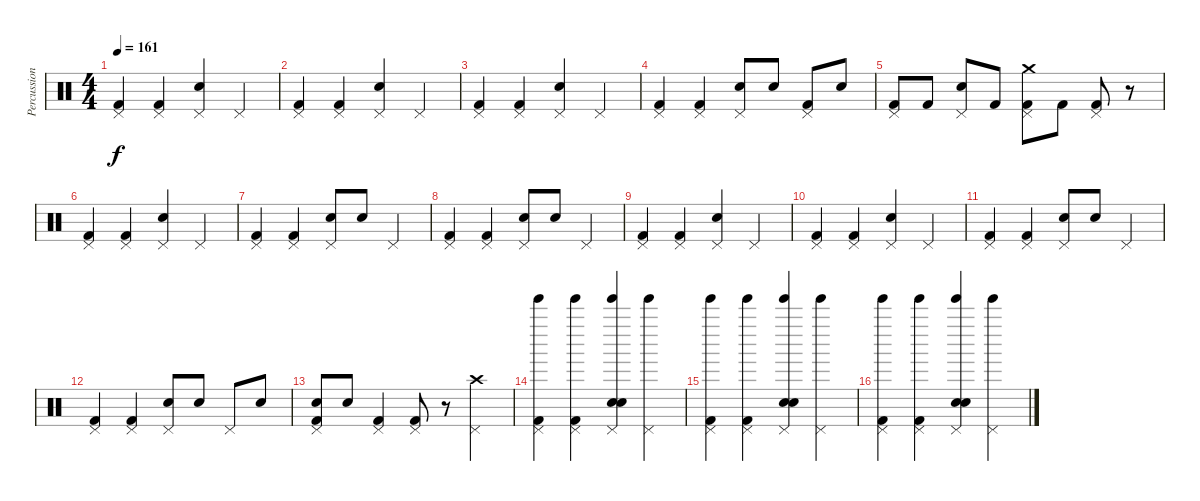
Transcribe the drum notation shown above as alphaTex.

\track ("Percussion" "Percussion") {instrument percussion}
\staff {score}
\articulation defaults
\ts (4 4)
\tempo 161
\clef neutral
\ks c
("Pedal Hi-Hat (hit)" "Kick (hit) 2").4{dy f} ("Pedal Hi-Hat (hit)" "Kick (hit) 2").4 ("Pedal Hi-Hat (hit)" "Electric Snare (hit)").4 "Pedal Hi-Hat (hit)".4 |
("Pedal Hi-Hat (hit)" "Kick (hit) 2").4 ("Pedal Hi-Hat (hit)" "Kick (hit) 2").4 ("Pedal Hi-Hat (hit)" "Electric Snare (hit)").4 "Pedal Hi-Hat (hit)".4 |
("Pedal Hi-Hat (hit)" "Kick (hit) 2").4 ("Pedal Hi-Hat (hit)" "Kick (hit) 2").4 ("Pedal Hi-Hat (hit)" "Electric Snare (hit)").4 "Pedal Hi-Hat (hit)".4 |
("Pedal Hi-Hat (hit)" "Kick (hit) 2").4 ("Pedal Hi-Hat (hit)" "Kick (hit) 2").4 ("Pedal Hi-Hat (hit)" "Electric Snare (hit)").8 "Electric Snare (hit)".8 ("Pedal Hi-Hat (hit)" "Kick (hit) 2").8 "Electric Snare (hit)".8 |
("Pedal Hi-Hat (hit)" "Kick (hit) 2").8 "Kick (hit) 2".8 ("Pedal Hi-Hat (hit)" "Electric Snare (hit)").8 "Kick (hit) 2".8 ("Pedal Hi-Hat (hit)" "Crash medium (hit)" "Kick (hit) 2").8 "Kick (hit) 2".8 ("Pedal Hi-Hat (hit)" "Kick (hit) 2").8 r.8 |
("Pedal Hi-Hat (hit)" "Kick (hit) 2").4 ("Pedal Hi-Hat (hit)" "Kick (hit) 2").4 ("Pedal Hi-Hat (hit)" "Electric Snare (hit)").4 "Pedal Hi-Hat (hit)".4 |
("Pedal Hi-Hat (hit)" "Kick (hit) 2").4 ("Pedal Hi-Hat (hit)" "Kick (hit) 2").4 ("Pedal Hi-Hat (hit)" "Electric Snare (hit)").8 "Electric Snare (hit)".8 "Pedal Hi-Hat (hit)".4 |
("Pedal Hi-Hat (hit)" "Kick (hit) 2").4 ("Pedal Hi-Hat (hit)" "Kick (hit) 2").4 ("Pedal Hi-Hat (hit)" "Electric Snare (hit)").8 "Electric Snare (hit)".8 "Pedal Hi-Hat (hit)".4 |
("Pedal Hi-Hat (hit)" "Kick (hit) 2").4 ("Pedal Hi-Hat (hit)" "Kick (hit) 2").4 ("Pedal Hi-Hat (hit)" "Electric Snare (hit)").4 "Pedal Hi-Hat (hit)".4 |
("Pedal Hi-Hat (hit)" "Kick (hit) 2").4 ("Pedal Hi-Hat (hit)" "Kick (hit) 2").4 ("Pedal Hi-Hat (hit)" "Electric Snare (hit)").4 "Pedal Hi-Hat (hit)".4 |
("Pedal Hi-Hat (hit)" "Kick (hit) 2").4 ("Pedal Hi-Hat (hit)" "Kick (hit) 2").4 ("Pedal Hi-Hat (hit)" "Electric Snare (hit)").8 "Electric Snare (hit)".8 "Pedal Hi-Hat (hit)".4 |
("Pedal Hi-Hat (hit)" "Kick (hit) 2").4 ("Pedal Hi-Hat (hit)" "Kick (hit) 2").4 ("Pedal Hi-Hat (hit)" "Electric Snare (hit)").8 "Electric Snare (hit)".8 "Pedal Hi-Hat (hit)".8 "Electric Snare (hit)".8 |
("Pedal Hi-Hat (hit)" "Electric Snare (hit)" "Kick (hit) 2").8 "Electric Snare (hit)".8 ("Pedal Hi-Hat (hit)" "Kick (hit) 2").4 ("Pedal Hi-Hat (hit)" "Kick (hit) 2").8 r.8 ("Pedal Hi-Hat (hit)" "Crash high (hit)").4 |
("Tinkle Bell (hit)" "Pedal Hi-Hat (hit)" "Kick (hit) 2").4 ("Tinkle Bell (hit)" "Pedal Hi-Hat (hit)" "Kick (hit) 2").4 ("Tinkle Bell (hit)" "Pedal Hi-Hat (hit)" "Electric Snare (hit)" "Hand Clap (hit)").4 ("Tinkle Bell (hit)" "Pedal Hi-Hat (hit)").4 |
("Tinkle Bell (hit)" "Pedal Hi-Hat (hit)" "Kick (hit) 2").4 ("Tinkle Bell (hit)" "Pedal Hi-Hat (hit)" "Kick (hit) 2").4 ("Tinkle Bell (hit)" "Pedal Hi-Hat (hit)" "Electric Snare (hit)" "Hand Clap (hit)").4 ("Tinkle Bell (hit)" "Pedal Hi-Hat (hit)").4 |
("Tinkle Bell (hit)" "Pedal Hi-Hat (hit)" "Kick (hit) 2").4 ("Tinkle Bell (hit)" "Pedal Hi-Hat (hit)" "Kick (hit) 2").4 ("Tinkle Bell (hit)" "Pedal Hi-Hat (hit)" "Electric Snare (hit)" "Hand Clap (hit)").4 ("Tinkle Bell (hit)" "Pedal Hi-Hat (hit)").4
